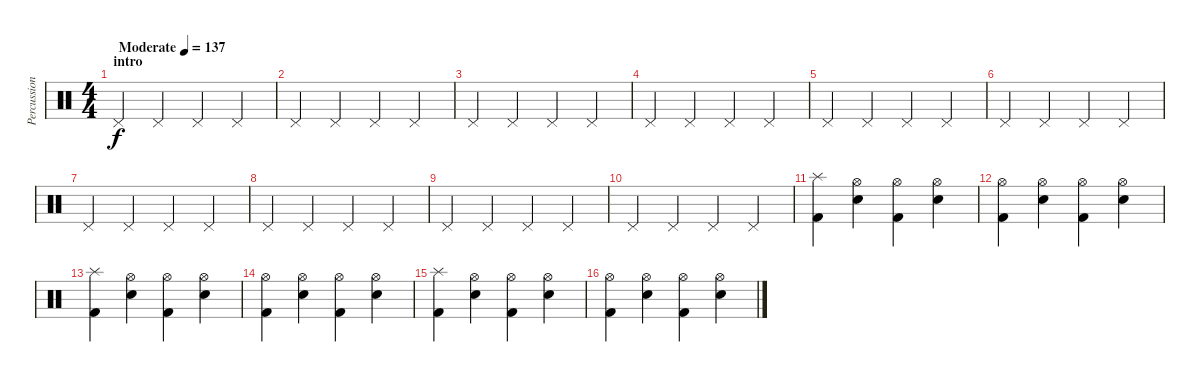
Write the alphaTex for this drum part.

\track ("Percussion" "Percussion") {instrument percussion}
\staff {score}
\articulation defaults
\ts (4 4)
\section ("" "intro")
\tempo (137 "Moderate")
\clef neutral
\ks c "Pedal Hi-Hat (hit)".4{dy f} "Pedal Hi-Hat (hit)".4 "Pedal Hi-Hat (hit)".4 "Pedal Hi-Hat (hit)".4
|
"Pedal Hi-Hat (hit)".4 "Pedal Hi-Hat (hit)".4 "Pedal Hi-Hat (hit)".4 "Pedal Hi-Hat (hit)".4 |
"Pedal Hi-Hat (hit)".4 "Pedal Hi-Hat (hit)".4 "Pedal Hi-Hat (hit)".4 "Pedal Hi-Hat (hit)".4 |
"Pedal Hi-Hat (hit)".4 "Pedal Hi-Hat (hit)".4 "Pedal Hi-Hat (hit)".4 "Pedal Hi-Hat (hit)".4 |
"Pedal Hi-Hat (hit)".4 "Pedal Hi-Hat (hit)".4 "Pedal Hi-Hat (hit)".4 "Pedal Hi-Hat (hit)".4 |
"Pedal Hi-Hat (hit)".4 "Pedal Hi-Hat (hit)".4 "Pedal Hi-Hat (hit)".4 "Pedal Hi-Hat (hit)".4 |
"Pedal Hi-Hat (hit)".4 "Pedal Hi-Hat (hit)".4 "Pedal Hi-Hat (hit)".4 "Pedal Hi-Hat (hit)".4 |
"Pedal Hi-Hat (hit)".4 "Pedal Hi-Hat (hit)".4 "Pedal Hi-Hat (hit)".4 "Pedal Hi-Hat (hit)".4 |
"Pedal Hi-Hat (hit)".4 "Pedal Hi-Hat (hit)".4 "Pedal Hi-Hat (hit)".4 "Pedal Hi-Hat (hit)".4 |
"Pedal Hi-Hat (hit)".4 "Pedal Hi-Hat (hit)".4 "Pedal Hi-Hat (hit)".4 "Pedal Hi-Hat (hit)".4 |
("Splash (hit)" "Kick (hit) 2").4 ("Hi-Hat (open)" "Snare (hit) 2").4 ("Hi-Hat (open)" "Kick (hit) 2").4 ("Hi-Hat (open)" "Snare (hit) 2").4 |
("Hi-Hat (open)" "Kick (hit) 2").4 ("Hi-Hat (open)" "Snare (hit) 2").4 ("Hi-Hat (open)" "Kick (hit) 2").4 ("Hi-Hat (open)" "Snare (hit) 2").4 |
("Splash (hit)" "Kick (hit) 2").4 ("Hi-Hat (open)" "Snare (hit) 2").4 ("Hi-Hat (open)" "Kick (hit) 2").4 ("Hi-Hat (open)" "Snare (hit) 2").4 |
("Hi-Hat (open)" "Kick (hit) 2").4 ("Hi-Hat (open)" "Snare (hit) 2").4 ("Hi-Hat (open)" "Kick (hit) 2").4 ("Hi-Hat (open)" "Snare (hit) 2").4 |
("Splash (hit)" "Kick (hit) 2").4 ("Hi-Hat (open)" "Snare (hit) 2").4 ("Hi-Hat (open)" "Kick (hit) 2").4 ("Hi-Hat (open)" "Snare (hit) 2").4 |
("Hi-Hat (open)" "Kick (hit) 2").4 ("Hi-Hat (open)" "Snare (hit) 2").4 ("Hi-Hat (open)" "Kick (hit) 2").4 ("Hi-Hat (open)" "Snare (hit) 2").4
